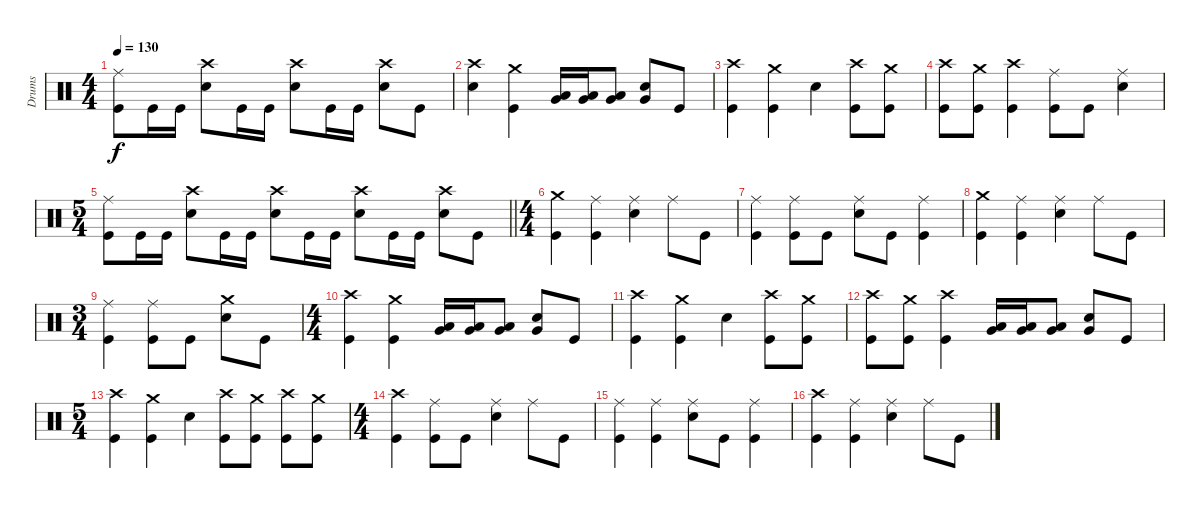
\track ("Drums" "Drums") {instrument percussion}
\staff {score}
\articulation defaults
\ts (4 4)
\tempo 130
\clef neutral
\ks c
("Ride (middle)" "Kick (hit)").8{dy f} "Kick (hit)".16 "Kick (hit)".16 ("Crash high (hit)" "Snare (hit) 2").8 "Kick (hit)".16 "Kick (hit)".16 ("Crash high (hit)" "Snare (hit) 2").8 "Kick (hit)".16 "Kick (hit)".16 ("Crash high (hit)" "Snare (hit) 2").8 "Kick (hit)".8 |
("Crash high (hit)" "Snare (hit) 2").4 ("Crash medium (hit)" "Kick (hit)").4 ("Low Tom (hit)" "Very Low Tom (hit)").16 ("Low Tom (hit)" "Very Low Tom (hit)").16 ("Low Tom (hit)" "Very Low Tom (hit)").8 ("Snare (hit) 2" "Very Low Tom (hit)").8 "Kick (hit)".8 |
("Crash high (hit)" "Kick (hit)").4 ("Crash medium (hit)" "Kick (hit)").4 "Snare (hit) 2".4 ("Crash high (hit)" "Kick (hit)").8 ("Crash medium (hit)" "Kick (hit)").8 |
("Crash high (hit)" "Kick (hit)").8 ("Crash medium (hit)" "Kick (hit)").8 ("Crash high (hit)" "Kick (hit)").4 ("Ride (middle)" "Kick (hit)").8 "Kick (hit)".8 ("Ride (middle)" "Snare (hit) 2").4 |
\ts (5 4)
\barLineRight lightlight
("Ride (middle)" "Kick (hit)").8 "Kick (hit)".16 "Kick (hit)".16 ("Crash high (hit)" "Snare (hit) 2").8 "Kick (hit)".16 "Kick (hit)".16 ("Crash high (hit)" "Snare (hit) 2").8 "Kick (hit)".16 "Kick (hit)".16 ("Crash high (hit)" "Snare (hit) 2").8 "Kick (hit)".16 "Kick (hit)".16 ("Crash high (hit)" "Snare (hit) 2").8 "Kick (hit)".8 |
\ts (4 4)
("Crash medium (hit)" "Kick (hit)").4 ("Ride (middle)" "Kick (hit)").4 ("Ride (middle)" "Snare (hit) 2").4 "Ride (middle)".8 "Kick (hit)".8 |
("Ride (middle)" "Kick (hit)").4 ("Ride (middle)" "Kick (hit)").8 "Kick (hit)".8 ("Ride (middle)" "Snare (hit) 2").8 "Kick (hit)".8 ("Ride (middle)" "Kick (hit)").4 |
("Crash medium (hit)" "Kick (hit)").4 ("Ride (middle)" "Kick (hit)").4 ("Ride (middle)" "Snare (hit) 2").4 "Ride (middle)".8 "Kick (hit)".8 |
\ts (3 4)
("Ride (middle)" "Kick (hit)").4 ("Ride (middle)" "Kick (hit)").8 "Kick (hit)".8 ("Crash medium (hit)" "Snare (hit) 2").8 "Kick (hit)".8 |
\ts (4 4)
("Crash high (hit)" "Kick (hit)").4 ("Crash medium (hit)" "Kick (hit)").4 ("Low Tom (hit)" "Very Low Tom (hit)").16 ("Low Tom (hit)" "Very Low Tom (hit)").16 ("Low Tom (hit)" "Very Low Tom (hit)").8 ("Snare (hit) 2" "Very Low Tom (hit)").8 "Kick (hit)".8 |
("Crash high (hit)" "Kick (hit)").4 ("Crash medium (hit)" "Kick (hit)").4 "Snare (hit) 2".4 ("Crash high (hit)" "Kick (hit)").8 ("Crash medium (hit)" "Kick (hit)").8 |
("Crash high (hit)" "Kick (hit)").8 ("Crash medium (hit)" "Kick (hit)").8 ("Crash high (hit)" "Kick (hit)").4 ("Low Tom (hit)" "Very Low Tom (hit)").16 ("Low Tom (hit)" "Very Low Tom (hit)").16 ("Low Tom (hit)" "Very Low Tom (hit)").8 ("Snare (hit) 2" "Very Low Tom (hit)").8 "Kick (hit)".8 |
\ts (5 4)
("Crash high (hit)" "Kick (hit)").4 ("Crash medium (hit)" "Kick (hit)").4 "Snare (hit) 2".4 ("Crash high (hit)" "Kick (hit)").8 ("Crash medium (hit)" "Kick (hit)").8 ("Crash high (hit)" "Kick (hit)").8 ("Crash medium (hit)" "Kick (hit)").8 |
\ts (4 4)
("Crash high (hit)" "Kick (hit)").4 ("Ride (middle)" "Kick (hit)").8 "Kick (hit)".8 ("Ride (middle)" "Snare (hit) 2").4 "Ride (middle)".8 "Kick (hit)".8 |
("Ride (middle)" "Kick (hit)").4 ("Ride (middle)" "Kick (hit)").4 ("Ride (middle)" "Snare (hit) 2").8 "Kick (hit)".8 ("Ride (middle)" "Kick (hit)").4 |
("Crash high (hit)" "Kick (hit)").4 ("Ride (middle)" "Kick (hit)").4 ("Ride (middle)" "Snare (hit) 2").4 "Ride (middle)".8 "Kick (hit)".8
